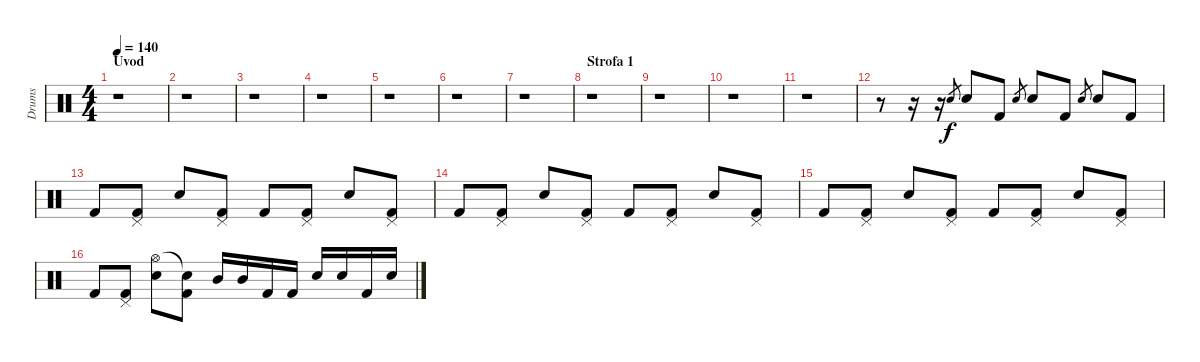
\track ("Drums" "Drums") {instrument percussion}
\staff {score}
\articulation defaults
\ts (4 4)
\section ("" "Uvod")
\tempo 140
\clef neutral
\ks c
r.1{dy f} |
r.1 |
r.1 |
r.1 |
r.1 |
r.1 |
r.1 |
\section ("" "Strofa 1")
r.1 |
r.1 |
r.1 |
r.1 |
r.8 r.16 r.16 "Electric Snare (hit)".8{gr} "Electric Snare (hit)".8 "Kick (hit) 2".8 "Electric Snare (hit)".8{gr} "Electric Snare (hit)".8 "Kick (hit) 2".8 "Electric Snare (hit)".8{gr} "Electric Snare (hit)".8 "Kick (hit) 2".8 |
"Kick (hit) 2".8 ("Pedal Hi-Hat (hit)" "Kick (hit) 2").8 "Electric Snare (hit)".8 ("Pedal Hi-Hat (hit)" "Kick (hit) 2").8 "Kick (hit) 2".8 ("Pedal Hi-Hat (hit)" "Kick (hit) 2").8 "Electric Snare (hit)".8 ("Pedal Hi-Hat (hit)" "Kick (hit) 2").8 |
"Kick (hit) 2".8 ("Pedal Hi-Hat (hit)" "Kick (hit) 2").8 "Electric Snare (hit)".8 ("Pedal Hi-Hat (hit)" "Kick (hit) 2").8 "Kick (hit) 2".8 ("Pedal Hi-Hat (hit)" "Kick (hit) 2").8 "Electric Snare (hit)".8 ("Pedal Hi-Hat (hit)" "Kick (hit) 2").8 |
"Kick (hit) 2".8 ("Pedal Hi-Hat (hit)" "Kick (hit) 2").8 "Electric Snare (hit)".8 ("Pedal Hi-Hat (hit)" "Kick (hit) 2").8 "Kick (hit) 2".8 ("Pedal Hi-Hat (hit)" "Kick (hit) 2").8 "Electric Snare (hit)".8 ("Pedal Hi-Hat (hit)" "Kick (hit) 2").8 |
"Kick (hit) 2".8 ("Pedal Hi-Hat (hit)" "Kick (hit) 2").8 ("Hi-Hat (open)" "Electric Snare (hit)").8 ("Snare (hit)"{t} "Kick (hit) 2").8 "Mid Tom (hit)".16 "Mid Tom (hit)".16 "Kick (hit) 2".16 "Kick (hit) 2".16 "Electric Snare (hit)".16 "Electric Snare (hit)".16 "Kick (hit) 2".16 "Electric Snare (hit)".16
